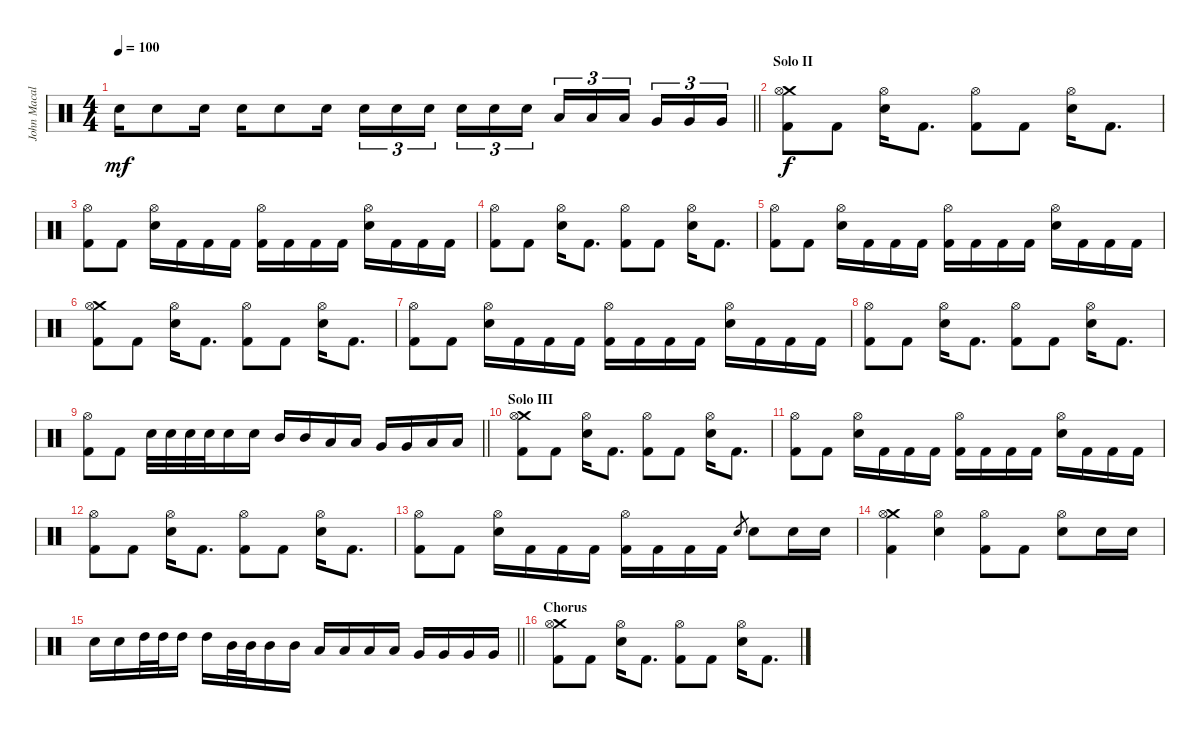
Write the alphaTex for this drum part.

\track ("John Macaluso" "John Macal") {instrument percussion}
\staff {score}
\articulation defaults
\ts (4 4)
\tempo 100
\clef neutral
\barLineRight lightlight
\ks c "Snare (hit) 2".16{dy mf} "Snare (hit) 2".8 "Snare (hit) 2".16 "Snare (hit) 2".16 "Snare (hit) 2".8 "Snare (hit) 2".16 "Snare (hit) 2".16{tu (3 2)} "Snare (hit) 2".16{tu (3 2)} "Snare (hit) 2".16{tu (3 2) beam splitsecondary} "Snare (hit) 2".16{tu (3 2)} "Snare (hit) 2".16{tu (3 2)} "Snare (hit) 2".16{tu (3 2)} "Low Tom (hit)".16{tu (3 2)} "Low Tom (hit)".16{tu (3 2)} "Low Tom (hit)".16{tu (3 2) beam splitsecondary} "Very Low Tom (hit)".16{tu (3 2)} "Very Low Tom (hit)".16{tu (3 2)} "Very Low Tom (hit)".16{tu (3 2)}
|
\section ("" "Solo II")
("Crash medium (hit)" "Hi-Hat (open)" "Kick (hit) 2").8{dy f} "Kick (hit) 2".8 ("Hi-Hat (open)" "Snare (hit) 2").16 "Kick (hit) 2".8{d} ("Hi-Hat (open)" "Kick (hit) 2").8 "Kick (hit) 2".8 ("Hi-Hat (open)" "Snare (hit) 2").16 "Kick (hit) 2".8{d} |
("Hi-Hat (open)" "Kick (hit) 2").8 "Kick (hit) 2".8 ("Hi-Hat (open)" "Snare (hit) 2").16 "Kick (hit) 2".16 "Kick (hit) 2".16 "Kick (hit) 2".16 ("Hi-Hat (open)" "Kick (hit) 2").16 "Kick (hit) 2".16 "Kick (hit) 2".16 "Kick (hit) 2".16 ("Hi-Hat (open)" "Snare (hit) 2").16 "Kick (hit) 2".16 "Kick (hit) 2".16 "Kick (hit) 2".16 |
("Hi-Hat (open)" "Kick (hit) 2").8 "Kick (hit) 2".8 ("Hi-Hat (open)" "Snare (hit) 2").16 "Kick (hit) 2".8{d} ("Hi-Hat (open)" "Kick (hit) 2").8 "Kick (hit) 2".8 ("Hi-Hat (open)" "Snare (hit) 2").16 "Kick (hit) 2".8{d} |
("Hi-Hat (open)" "Kick (hit) 2").8 "Kick (hit) 2".8 ("Hi-Hat (open)" "Snare (hit) 2").16 "Kick (hit) 2".16 "Kick (hit) 2".16 "Kick (hit) 2".16 ("Hi-Hat (open)" "Kick (hit) 2").16 "Kick (hit) 2".16 "Kick (hit) 2".16 "Kick (hit) 2".16 ("Hi-Hat (open)" "Snare (hit) 2").16 "Kick (hit) 2".16 "Kick (hit) 2".16 "Kick (hit) 2".16 |
("Crash medium (hit)" "Hi-Hat (open)" "Kick (hit) 2").8 "Kick (hit) 2".8 ("Hi-Hat (open)" "Snare (hit) 2").16 "Kick (hit) 2".8{d} ("Hi-Hat (open)" "Kick (hit) 2").8 "Kick (hit) 2".8 ("Hi-Hat (open)" "Snare (hit) 2").16 "Kick (hit) 2".8{d} |
("Hi-Hat (open)" "Kick (hit) 2").8 "Kick (hit) 2".8 ("Hi-Hat (open)" "Snare (hit) 2").16 "Kick (hit) 2".16 "Kick (hit) 2".16 "Kick (hit) 2".16 ("Hi-Hat (open)" "Kick (hit) 2").16 "Kick (hit) 2".16 "Kick (hit) 2".16 "Kick (hit) 2".16 ("Hi-Hat (open)" "Snare (hit) 2").16 "Kick (hit) 2".16 "Kick (hit) 2".16 "Kick (hit) 2".16 |
("Hi-Hat (open)" "Kick (hit) 2").8 "Kick (hit) 2".8 ("Hi-Hat (open)" "Snare (hit) 2").16 "Kick (hit) 2".8{d} ("Hi-Hat (open)" "Kick (hit) 2").8 "Kick (hit) 2".8 ("Hi-Hat (open)" "Snare (hit) 2").16 "Kick (hit) 2".8{d} |
\barLineRight lightlight
("Hi-Hat (open)" "Kick (hit) 2").8 "Kick (hit) 2".8 "Snare (hit) 2".32 "Snare (hit) 2".32 "Snare (hit) 2".32 "Snare (hit) 2".32 "Snare (hit) 2".16 "Snare (hit) 2".16 "Mid Tom (hit)".16 "Mid Tom (hit)".16 "Low Tom (hit)".16 "Low Tom (hit)".16 "Very Low Tom (hit)".16 "Very Low Tom (hit)".16 "Low Floor Tom (hit)".16 "Low Floor Tom (hit)".16 |
\section ("" "Solo III")
("Crash medium (hit)" "Hi-Hat (open)" "Kick (hit) 2").8 "Kick (hit) 2".8 ("Hi-Hat (open)" "Snare (hit) 2").16 "Kick (hit) 2".8{d} ("Hi-Hat (open)" "Kick (hit) 2").8 "Kick (hit) 2".8 ("Hi-Hat (open)" "Snare (hit) 2").16 "Kick (hit) 2".8{d} |
("Hi-Hat (open)" "Kick (hit) 2").8 "Kick (hit) 2".8 ("Hi-Hat (open)" "Snare (hit) 2").16 "Kick (hit) 2".16 "Kick (hit) 2".16 "Kick (hit) 2".16 ("Hi-Hat (open)" "Kick (hit) 2").16 "Kick (hit) 2".16 "Kick (hit) 2".16 "Kick (hit) 2".16 ("Hi-Hat (open)" "Snare (hit) 2").16 "Kick (hit) 2".16 "Kick (hit) 2".16 "Kick (hit) 2".16 |
("Hi-Hat (open)" "Kick (hit) 2").8 "Kick (hit) 2".8 ("Hi-Hat (open)" "Snare (hit) 2").16 "Kick (hit) 2".8{d} ("Hi-Hat (open)" "Kick (hit) 2").8 "Kick (hit) 2".8 ("Hi-Hat (open)" "Snare (hit) 2").16 "Kick (hit) 2".8{d} |
("Hi-Hat (open)" "Kick (hit) 2").8 "Kick (hit) 2".8 ("Hi-Hat (open)" "Snare (hit) 2").16 "Kick (hit) 2".16 "Kick (hit) 2".16 "Kick (hit) 2".16 ("Hi-Hat (open)" "Kick (hit) 2").16 "Kick (hit) 2".16 "Kick (hit) 2".16 "Kick (hit) 2".16 "Snare (hit) 2".8{gr} "Snare (hit) 2".8 "Snare (hit) 2".16 "Snare (hit) 2".16 |
("Crash medium (hit)" "Hi-Hat (open)" "Kick (hit) 2").4 ("Hi-Hat (open)" "Snare (hit) 2").4 ("Hi-Hat (open)" "Kick (hit) 2").8 "Kick (hit) 2".8 ("Hi-Hat (open)" "Snare (hit) 2").8 "Snare (hit) 2".16 "Snare (hit) 2".16 |
\barLineRight lightlight "Snare (hit) 2".16 "Snare (hit) 2".16 "High Tom (hit)".32 "High Tom (hit)".32 "High Tom (hit)".16 "High Tom (hit)".16 "Mid Tom (hit)".32 "Mid Tom (hit)".32 "Mid Tom (hit)".16 "Mid Tom (hit)".16 "Low Tom (hit)".16 "Low Tom (hit)".16 "Low Tom (hit)".16 "Low Tom (hit)".16 "Very Low Tom (hit)".16 "Very Low Tom (hit)".16 "Very Low Tom (hit)".16 "Very Low Tom (hit)".16
|
\section ("" "Chorus")
("Crash medium (hit)" "Hi-Hat (open)" "Kick (hit) 2").8 "Kick (hit) 2".8 ("Hi-Hat (open)" "Snare (hit) 2").16 "Kick (hit) 2".8{d} ("Hi-Hat (open)" "Kick (hit) 2").8 "Kick (hit) 2".8 ("Hi-Hat (open)" "Snare (hit) 2").16 "Kick (hit) 2".8{d}
